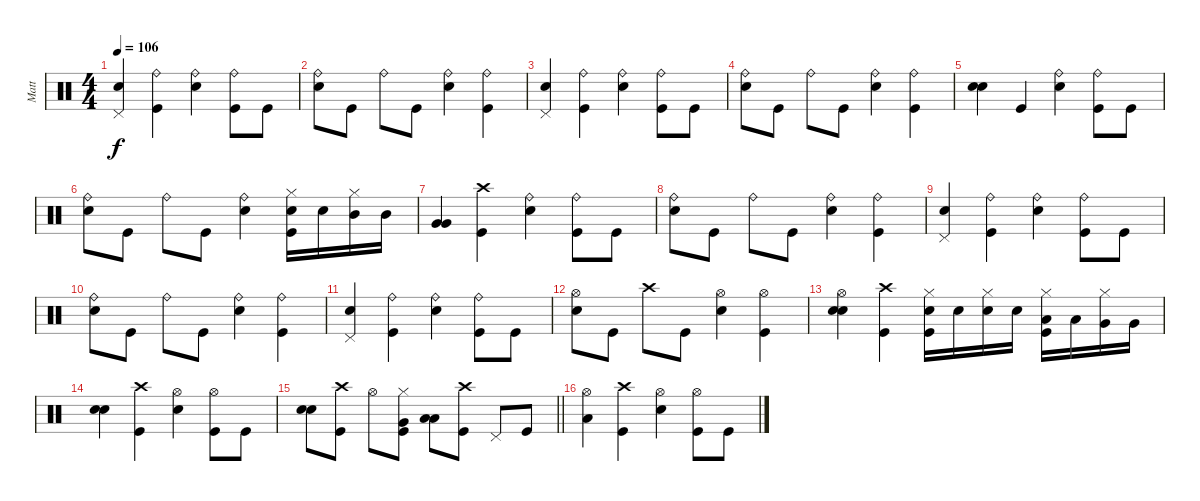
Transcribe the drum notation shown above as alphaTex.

\track ("Matt" "Matt") {instrument percussion}
\staff {score}
\articulation defaults
\ts (4 4)
\tempo 106
\clef neutral
\ks c
("Electric Snare (hit)" "Pedal Hi-Hat (hit)").4{dy f} ("Ride (bell)" "Kick (hit)").4 ("Electric Snare (hit)" "Ride (bell)").4 ("Ride (bell)" "Kick (hit)").8 "Kick (hit)".8 |
("Electric Snare (hit)" "Ride (bell)").8 "Kick (hit)".8 "Ride (bell)".8 "Kick (hit)".8 ("Electric Snare (hit)" "Ride (bell)").4 ("Ride (bell)" "Kick (hit)").4 |
("Electric Snare (hit)" "Pedal Hi-Hat (hit)").4 ("Ride (bell)" "Kick (hit)").4 ("Electric Snare (hit)" "Ride (bell)").4 ("Ride (bell)" "Kick (hit)").8 "Kick (hit)".8 |
("Electric Snare (hit)" "Ride (bell)").8 "Kick (hit)".8 "Ride (bell)".8 "Kick (hit)".8 ("Electric Snare (hit)" "Ride (bell)").4 ("Ride (bell)" "Kick (hit)").4 |
("Electric Snare (hit)" "Electric Snare (hit)").4 "Kick (hit)".4 ("Electric Snare (hit)" "Ride (bell)").4 ("Ride (bell)" "Kick (hit)").8 "Kick (hit)".8 |
("Electric Snare (hit)" "Ride (bell)").8 "Kick (hit)".8 "Ride (bell)".8 "Kick (hit)".8 ("Electric Snare (hit)" "Ride (bell)").4 ("Hi-Hat (closed)" "Electric Snare (hit)" "Kick (hit)").16 "Electric Snare (hit)".16 ("Hi-Hat (closed)" "Mid Tom (hit)").16 "Mid Tom (hit)".16 |
("Very Low Tom (hit)" "Very Low Tom (hit)").4 ("Crash high (hit)" "Kick (hit)").4 ("Electric Snare (hit)" "Ride (bell)").4 ("Ride (bell)" "Kick (hit)").8 "Kick (hit)".8 |
("Electric Snare (hit)" "Ride (bell)").8 "Kick (hit)".8 "Ride (bell)".8 "Kick (hit)".8 ("Electric Snare (hit)" "Ride (bell)").4 ("Ride (bell)" "Kick (hit)").4 |
("Electric Snare (hit)" "Pedal Hi-Hat (hit)").4 ("Ride (bell)" "Kick (hit)").4 ("Electric Snare (hit)" "Ride (bell)").4 ("Ride (bell)" "Kick (hit)").8 "Kick (hit)".8 |
("Electric Snare (hit)" "Ride (bell)").8 "Kick (hit)".8 "Ride (bell)".8 "Kick (hit)".8 ("Electric Snare (hit)" "Ride (bell)").4 ("Ride (bell)" "Kick (hit)").4 |
("Electric Snare (hit)" "Pedal Hi-Hat (hit)").4 ("Ride (bell)" "Kick (hit)").4 ("Electric Snare (hit)" "Ride (bell)").4 ("Ride (bell)" "Kick (hit)").8 "Kick (hit)".8 |
("Electric Snare (hit)" "Hi-Hat (open)").8 "Kick (hit)".8 "Crash high (hit)".8 "Kick (hit)".8 ("Electric Snare (hit)" "Hi-Hat (open)").4 ("Hi-Hat (open)" "Kick (hit)").4 |
("Hi-Hat (open)" "Electric Snare (hit)" "Electric Snare (hit)").4 ("Crash high (hit)" "Kick (hit)").4 ("Electric Snare (hit)" "Hi-Hat (closed)" "Kick (hit)").16 "Electric Snare (hit)".16 ("Electric Snare (hit)" "Hi-Hat (closed)").16 "Electric Snare (hit)".16 ("Low Tom (hit)" "Hi-Hat (closed)" "Kick (hit)").16 "Low Tom (hit)".16 ("Very Low Tom (hit)" "Hi-Hat (closed)").16 "Very Low Tom (hit)".16 |
("Electric Snare (hit)" "Electric Snare (hit)").4 ("Crash high (hit)" "Kick (hit)").4 ("Electric Snare (hit)" "Hi-Hat (open)").4 ("Hi-Hat (open)" "Kick (hit)").8 "Kick (hit)".8 |
\barLineRight lightlight
("Electric Snare (hit)" "Electric Snare (hit)").8 ("Crash high (hit)" "Kick (hit)").8 "Hi-Hat (open)".8 ("Hi-Hat (closed)" "Very Low Tom (hit)" "Kick (hit)").8 ("Low Floor Tom (hit)" "Low Floor Tom (hit)").8 ("Crash high (hit)" "Kick (hit)").8 "Pedal Hi-Hat (hit)".8 "Kick (hit)".8 |
("Low Floor Tom (hit)" "Hi-Hat (open)").4 ("Crash high (hit)" "Kick (hit)").4 ("Electric Snare (hit)" "Hi-Hat (open)").4 ("Hi-Hat (open)" "Kick (hit)").8 "Kick (hit)".8
